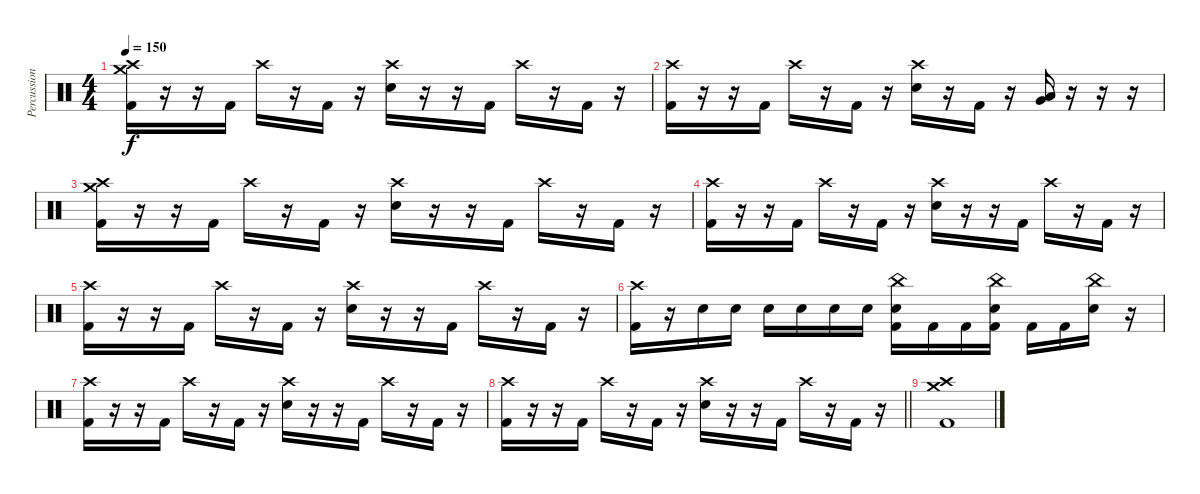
\track ("Percussion" "Percussion") {instrument percussion}
\staff {score}
\articulation defaults
\ts (4 4)
\section ("" "")
\tempo 150
\clef neutral
\ks c
("Crash high (hit)" "Crash medium (hit)" "Kick (hit) 2").16{dy f} r.16 r.16 "Kick (hit) 2".16 "Crash high (hit)".16 r.16 "Kick (hit) 2".16 r.16 ("Crash high (hit)" "Snare (hit) 2").16 r.16 r.16 "Kick (hit) 2".16 "Crash high (hit)".16 r.16 "Kick (hit) 2".16 r.16 |
("Crash high (hit)" "Kick (hit) 2").16 r.16 r.16 "Kick (hit) 2".16 "Crash high (hit)".16 r.16 "Kick (hit) 2".16 r.16 ("Crash high (hit)" "Snare (hit) 2").16 r.16 "Kick (hit) 2".16 r.16 ("Low Tom (hit)" "Very Low Tom (hit)").16 r.16 r.16 r.16 |
("Crash high (hit)" "Crash medium (hit)" "Kick (hit) 2").16 r.16 r.16 "Kick (hit) 2".16 "Crash high (hit)".16 r.16 "Kick (hit) 2".16 r.16 ("Crash high (hit)" "Snare (hit) 2").16 r.16 r.16 "Kick (hit) 2".16 "Crash high (hit)".16 r.16 "Kick (hit) 2".16 r.16 |
("Crash high (hit)" "Kick (hit) 2").16 r.16 r.16 "Kick (hit) 2".16 "Crash high (hit)".16 r.16 "Kick (hit) 2".16 r.16 ("Crash high (hit)" "Snare (hit) 2").16 r.16 r.16 "Kick (hit) 2".16 "Crash high (hit)".16 r.16 "Kick (hit) 2".16 r.16 |
("Crash high (hit)" "Kick (hit) 2").16 r.16 r.16 "Kick (hit) 2".16 "Crash high (hit)".16 r.16 "Kick (hit) 2".16 r.16 ("Crash high (hit)" "Snare (hit) 2").16 r.16 r.16 "Kick (hit) 2".16 "Crash high (hit)".16 r.16 "Kick (hit) 2".16 r.16 |
("Crash high (hit)" "Kick (hit) 2").16 r.16 "Snare (hit) 2".16 "Snare (hit) 2".16 "Snare (hit) 2".16 "Snare (hit) 2".16 "Snare (hit) 2".16 "Snare (hit) 2".16 ("China (hit)" "Snare (hit) 2" "Kick (hit) 2").16 "Kick (hit) 2".16 "Kick (hit) 2".16 ("China (hit)" "Snare (hit) 2" "Kick (hit) 2").16 "Kick (hit) 2".16 "Kick (hit) 2".16 ("China (hit)" "Snare (hit) 2").16 r.16 |
("Crash high (hit)" "Kick (hit) 2").16 r.16 r.16 "Kick (hit) 2".16 "Crash high (hit)".16 r.16 "Kick (hit) 2".16 r.16 ("Crash high (hit)" "Snare (hit) 2").16 r.16 r.16 "Kick (hit) 2".16 "Crash high (hit)".16 r.16 "Kick (hit) 2".16 r.16 |
\barLineRight lightlight
("Crash high (hit)" "Kick (hit) 2").16 r.16 r.16 "Kick (hit) 2".16 "Crash high (hit)".16 r.16 "Kick (hit) 2".16 r.16 ("Crash high (hit)" "Snare (hit) 2").16 r.16 r.16 "Kick (hit) 2".16 "Crash high (hit)".16 r.16 "Kick (hit) 2".16 r.16 |
\section ("" "")
("Crash high (hit)" "Crash medium (hit)" "Kick (hit) 2").1{volume 0}
